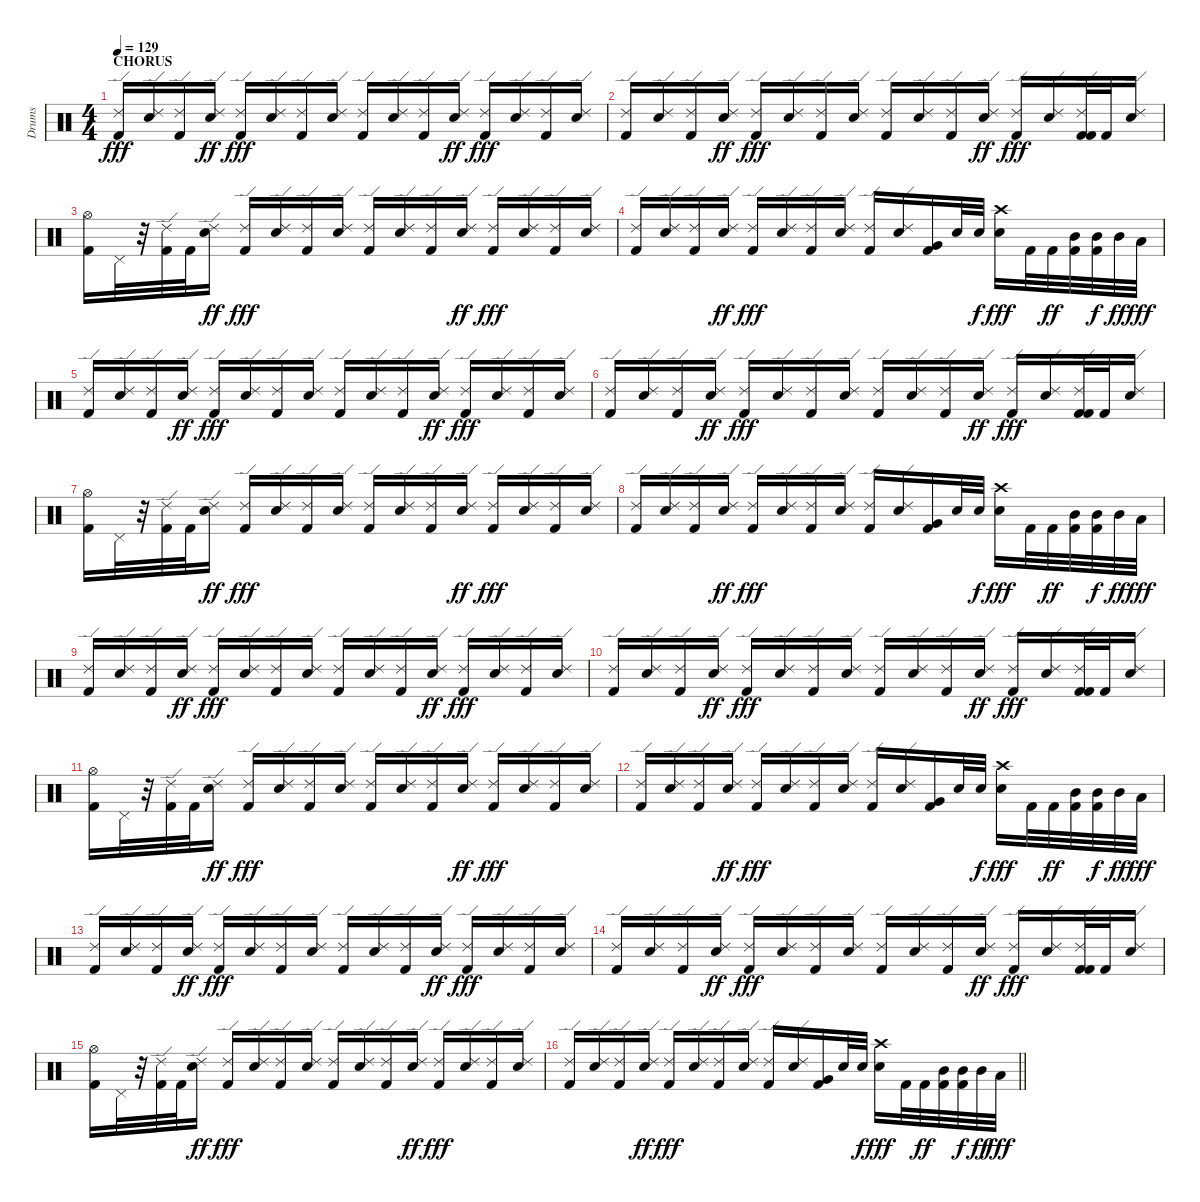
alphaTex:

\track ("Drums" "Drums") {instrument percussion}
\staff {score}
\articulation defaults
\ts (4 4)
\section ("" "CHORUS")
\tempo 129
\clef neutral
\ks c
("Kick (hit) 2" "Ride (edge) 2").16{dy fff} ("Snare (hit) 2" "Ride (edge) 2").16 ("Kick (hit) 2" "Ride (edge) 2").16 ("Snare (hit) 2" "Ride (edge) 2").16{dy ff} ("Kick (hit) 2" "Ride (edge) 2").16{dy fff} ("Snare (hit) 2" "Ride (edge) 2").16 ("Kick (hit) 2" "Ride (edge) 2").16 ("Snare (hit) 2" "Ride (edge) 2").16 ("Kick (hit) 2" "Ride (edge) 2").16 ("Snare (hit) 2" "Ride (edge) 2").16 ("Kick (hit) 2" "Ride (edge) 2").16 ("Snare (hit) 2" "Ride (edge) 2").16{dy ff} ("Kick (hit) 2" "Ride (edge) 2").16{dy fff} ("Snare (hit) 2" "Ride (edge) 2").16 ("Kick (hit) 2" "Ride (edge) 2").16 ("Snare (hit) 2" "Ride (edge) 2").16 |
("Kick (hit) 2" "Ride (edge) 2").16 ("Snare (hit) 2" "Ride (edge) 2").16 ("Kick (hit) 2" "Ride (edge) 2").16 ("Snare (hit) 2" "Ride (edge) 2").16{dy ff} ("Kick (hit) 2" "Ride (edge) 2").16{dy fff} ("Snare (hit) 2" "Ride (edge) 2").16 ("Kick (hit) 2" "Ride (edge) 2").16 ("Snare (hit) 2" "Ride (edge) 2").16 ("Kick (hit) 2" "Ride (edge) 2").16 ("Snare (hit) 2" "Ride (edge) 2").16 ("Kick (hit) 2" "Ride (edge) 2").16 ("Snare (hit) 2" "Ride (edge) 2").16{dy ff} ("Kick (hit) 2" "Ride (edge) 2").16{dy fff} ("Snare (hit) 2" "Ride (edge) 2").16 ("Kick (hit) 2" "Kick (hit) 2" "Ride (edge) 2").32 "Kick (hit) 2".32 ("Snare (hit) 2" "Ride (edge) 2").16 |
("Kick (hit) 2" "Hi-Hat (open)").16 "Pedal Hi-Hat (hit)".32 r.32 ("Kick (hit) 2" "Ride (edge) 2").32 "Kick (hit) 2".32 ("Snare (hit) 2" "Ride (edge) 2").16{dy ff} ("Kick (hit) 2" "Ride (edge) 2").16{dy fff} ("Snare (hit) 2" "Ride (edge) 2").16 ("Kick (hit) 2" "Ride (edge) 2").16 ("Snare (hit) 2" "Ride (edge) 2").16 ("Kick (hit) 2" "Ride (edge) 2").16 ("Snare (hit) 2" "Ride (edge) 2").16 ("Kick (hit) 2" "Ride (edge) 2").16 ("Snare (hit) 2" "Ride (edge) 2").16{dy ff} ("Kick (hit) 2" "Ride (edge) 2").16{dy fff} ("Snare (hit) 2" "Ride (edge) 2").16 ("Kick (hit) 2" "Ride (edge) 2").16 ("Snare (hit) 2" "Ride (edge) 2").16 |
("Kick (hit) 2" "Ride (edge) 2").16 ("Snare (hit) 2" "Ride (edge) 2").16 ("Kick (hit) 2" "Ride (edge) 2").16 ("Snare (hit) 2" "Ride (edge) 2").16{dy ff} ("Kick (hit) 2" "Ride (edge) 2").16{dy fff} ("Snare (hit) 2" "Ride (edge) 2").16 ("Kick (hit) 2" "Ride (edge) 2").16 ("Snare (hit) 2" "Ride (edge) 2").16 ("Kick (hit) 2" "Ride (edge) 2").16 ("Snare (hit) 2" "Ride (edge) 2").16 ("Kick (hit) 2" "Very Low Tom (hit)").16 "Snare (hit) 2".32 "Snare (hit) 2".32{dy f} ("Snare (hit) 2" "Crash high (hit)").16{dy fff} "Kick (hit) 2".32 "Kick (hit) 2".32{dy ff} ("Kick (hit) 2" "Mid Tom (hit)").32 ("Kick (hit) 2" "Mid Tom (hit)").32{dy f} "Mid Tom (hit)".32{dy ff} "Low Tom (hit)".32{dy fff} |
("Kick (hit) 2" "Ride (edge) 2").16 ("Snare (hit) 2" "Ride (edge) 2").16 ("Kick (hit) 2" "Ride (edge) 2").16 ("Snare (hit) 2" "Ride (edge) 2").16{dy ff} ("Kick (hit) 2" "Ride (edge) 2").16{dy fff} ("Snare (hit) 2" "Ride (edge) 2").16 ("Kick (hit) 2" "Ride (edge) 2").16 ("Snare (hit) 2" "Ride (edge) 2").16 ("Kick (hit) 2" "Ride (edge) 2").16 ("Snare (hit) 2" "Ride (edge) 2").16 ("Kick (hit) 2" "Ride (edge) 2").16 ("Snare (hit) 2" "Ride (edge) 2").16{dy ff} ("Kick (hit) 2" "Ride (edge) 2").16{dy fff} ("Snare (hit) 2" "Ride (edge) 2").16 ("Kick (hit) 2" "Ride (edge) 2").16 ("Snare (hit) 2" "Ride (edge) 2").16 |
("Kick (hit) 2" "Ride (edge) 2").16 ("Snare (hit) 2" "Ride (edge) 2").16 ("Kick (hit) 2" "Ride (edge) 2").16 ("Snare (hit) 2" "Ride (edge) 2").16{dy ff} ("Kick (hit) 2" "Ride (edge) 2").16{dy fff} ("Snare (hit) 2" "Ride (edge) 2").16 ("Kick (hit) 2" "Ride (edge) 2").16 ("Snare (hit) 2" "Ride (edge) 2").16 ("Kick (hit) 2" "Ride (edge) 2").16 ("Snare (hit) 2" "Ride (edge) 2").16 ("Kick (hit) 2" "Ride (edge) 2").16 ("Snare (hit) 2" "Ride (edge) 2").16{dy ff} ("Kick (hit) 2" "Ride (edge) 2").16{dy fff} ("Snare (hit) 2" "Ride (edge) 2").16 ("Kick (hit) 2" "Kick (hit) 2" "Ride (edge) 2").32 "Kick (hit) 2".32 ("Snare (hit) 2" "Ride (edge) 2").16 |
("Kick (hit) 2" "Hi-Hat (open)").16 "Pedal Hi-Hat (hit)".32 r.32 ("Kick (hit) 2" "Ride (edge) 2").32 "Kick (hit) 2".32 ("Snare (hit) 2" "Ride (edge) 2").16{dy ff} ("Kick (hit) 2" "Ride (edge) 2").16{dy fff} ("Snare (hit) 2" "Ride (edge) 2").16 ("Kick (hit) 2" "Ride (edge) 2").16 ("Snare (hit) 2" "Ride (edge) 2").16 ("Kick (hit) 2" "Ride (edge) 2").16 ("Snare (hit) 2" "Ride (edge) 2").16 ("Kick (hit) 2" "Ride (edge) 2").16 ("Snare (hit) 2" "Ride (edge) 2").16{dy ff} ("Kick (hit) 2" "Ride (edge) 2").16{dy fff} ("Snare (hit) 2" "Ride (edge) 2").16 ("Kick (hit) 2" "Ride (edge) 2").16 ("Snare (hit) 2" "Ride (edge) 2").16 |
("Kick (hit) 2" "Ride (edge) 2").16 ("Snare (hit) 2" "Ride (edge) 2").16 ("Kick (hit) 2" "Ride (edge) 2").16 ("Snare (hit) 2" "Ride (edge) 2").16{dy ff} ("Kick (hit) 2" "Ride (edge) 2").16{dy fff} ("Snare (hit) 2" "Ride (edge) 2").16 ("Kick (hit) 2" "Ride (edge) 2").16 ("Snare (hit) 2" "Ride (edge) 2").16 ("Kick (hit) 2" "Ride (edge) 2").16 ("Snare (hit) 2" "Ride (edge) 2").16 ("Kick (hit) 2" "Very Low Tom (hit)").16 "Snare (hit) 2".32 "Snare (hit) 2".32{dy f} ("Snare (hit) 2" "Crash high (hit)").16{dy fff} "Kick (hit) 2".32 "Kick (hit) 2".32{dy ff} ("Kick (hit) 2" "Mid Tom (hit)").32 ("Kick (hit) 2" "Mid Tom (hit)").32{dy f} "Mid Tom (hit)".32{dy ff} "Low Tom (hit)".32{dy fff} |
("Kick (hit) 2" "Ride (edge) 2").16 ("Snare (hit) 2" "Ride (edge) 2").16 ("Kick (hit) 2" "Ride (edge) 2").16 ("Snare (hit) 2" "Ride (edge) 2").16{dy ff} ("Kick (hit) 2" "Ride (edge) 2").16{dy fff} ("Snare (hit) 2" "Ride (edge) 2").16 ("Kick (hit) 2" "Ride (edge) 2").16 ("Snare (hit) 2" "Ride (edge) 2").16 ("Kick (hit) 2" "Ride (edge) 2").16 ("Snare (hit) 2" "Ride (edge) 2").16 ("Kick (hit) 2" "Ride (edge) 2").16 ("Snare (hit) 2" "Ride (edge) 2").16{dy ff} ("Kick (hit) 2" "Ride (edge) 2").16{dy fff} ("Snare (hit) 2" "Ride (edge) 2").16 ("Kick (hit) 2" "Ride (edge) 2").16 ("Snare (hit) 2" "Ride (edge) 2").16 |
("Kick (hit) 2" "Ride (edge) 2").16 ("Snare (hit) 2" "Ride (edge) 2").16 ("Kick (hit) 2" "Ride (edge) 2").16 ("Snare (hit) 2" "Ride (edge) 2").16{dy ff} ("Kick (hit) 2" "Ride (edge) 2").16{dy fff} ("Snare (hit) 2" "Ride (edge) 2").16 ("Kick (hit) 2" "Ride (edge) 2").16 ("Snare (hit) 2" "Ride (edge) 2").16 ("Kick (hit) 2" "Ride (edge) 2").16 ("Snare (hit) 2" "Ride (edge) 2").16 ("Kick (hit) 2" "Ride (edge) 2").16 ("Snare (hit) 2" "Ride (edge) 2").16{dy ff} ("Kick (hit) 2" "Ride (edge) 2").16{dy fff} ("Snare (hit) 2" "Ride (edge) 2").16 ("Kick (hit) 2" "Kick (hit) 2" "Ride (edge) 2").32 "Kick (hit) 2".32 ("Snare (hit) 2" "Ride (edge) 2").16 |
("Kick (hit) 2" "Hi-Hat (open)").16 "Pedal Hi-Hat (hit)".32 r.32 ("Kick (hit) 2" "Ride (edge) 2").32 "Kick (hit) 2".32 ("Snare (hit) 2" "Ride (edge) 2").16{dy ff} ("Kick (hit) 2" "Ride (edge) 2").16{dy fff} ("Snare (hit) 2" "Ride (edge) 2").16 ("Kick (hit) 2" "Ride (edge) 2").16 ("Snare (hit) 2" "Ride (edge) 2").16 ("Kick (hit) 2" "Ride (edge) 2").16 ("Snare (hit) 2" "Ride (edge) 2").16 ("Kick (hit) 2" "Ride (edge) 2").16 ("Snare (hit) 2" "Ride (edge) 2").16{dy ff} ("Kick (hit) 2" "Ride (edge) 2").16{dy fff} ("Snare (hit) 2" "Ride (edge) 2").16 ("Kick (hit) 2" "Ride (edge) 2").16 ("Snare (hit) 2" "Ride (edge) 2").16 |
("Kick (hit) 2" "Ride (edge) 2").16 ("Snare (hit) 2" "Ride (edge) 2").16 ("Kick (hit) 2" "Ride (edge) 2").16 ("Snare (hit) 2" "Ride (edge) 2").16{dy ff} ("Kick (hit) 2" "Ride (edge) 2").16{dy fff} ("Snare (hit) 2" "Ride (edge) 2").16 ("Kick (hit) 2" "Ride (edge) 2").16 ("Snare (hit) 2" "Ride (edge) 2").16 ("Kick (hit) 2" "Ride (edge) 2").16 ("Snare (hit) 2" "Ride (edge) 2").16 ("Kick (hit) 2" "Very Low Tom (hit)").16 "Snare (hit) 2".32 "Snare (hit) 2".32{dy f} ("Snare (hit) 2" "Crash high (hit)").16{dy fff} "Kick (hit) 2".32 "Kick (hit) 2".32{dy ff} ("Kick (hit) 2" "Mid Tom (hit)").32 ("Kick (hit) 2" "Mid Tom (hit)").32{dy f} "Mid Tom (hit)".32{dy ff} "Low Tom (hit)".32{dy fff} |
("Kick (hit) 2" "Ride (edge) 2").16 ("Snare (hit) 2" "Ride (edge) 2").16 ("Kick (hit) 2" "Ride (edge) 2").16 ("Snare (hit) 2" "Ride (edge) 2").16{dy ff} ("Kick (hit) 2" "Ride (edge) 2").16{dy fff} ("Snare (hit) 2" "Ride (edge) 2").16 ("Kick (hit) 2" "Ride (edge) 2").16 ("Snare (hit) 2" "Ride (edge) 2").16 ("Kick (hit) 2" "Ride (edge) 2").16 ("Snare (hit) 2" "Ride (edge) 2").16 ("Kick (hit) 2" "Ride (edge) 2").16 ("Snare (hit) 2" "Ride (edge) 2").16{dy ff} ("Kick (hit) 2" "Ride (edge) 2").16{dy fff} ("Snare (hit) 2" "Ride (edge) 2").16 ("Kick (hit) 2" "Ride (edge) 2").16 ("Snare (hit) 2" "Ride (edge) 2").16 |
("Kick (hit) 2" "Ride (edge) 2").16 ("Snare (hit) 2" "Ride (edge) 2").16 ("Kick (hit) 2" "Ride (edge) 2").16 ("Snare (hit) 2" "Ride (edge) 2").16{dy ff} ("Kick (hit) 2" "Ride (edge) 2").16{dy fff} ("Snare (hit) 2" "Ride (edge) 2").16 ("Kick (hit) 2" "Ride (edge) 2").16 ("Snare (hit) 2" "Ride (edge) 2").16 ("Kick (hit) 2" "Ride (edge) 2").16 ("Snare (hit) 2" "Ride (edge) 2").16 ("Kick (hit) 2" "Ride (edge) 2").16 ("Snare (hit) 2" "Ride (edge) 2").16{dy ff} ("Kick (hit) 2" "Ride (edge) 2").16{dy fff} ("Snare (hit) 2" "Ride (edge) 2").16 ("Kick (hit) 2" "Kick (hit) 2" "Ride (edge) 2").32 "Kick (hit) 2".32 ("Snare (hit) 2" "Ride (edge) 2").16 |
("Kick (hit) 2" "Hi-Hat (open)").16 "Pedal Hi-Hat (hit)".32 r.32 ("Kick (hit) 2" "Ride (edge) 2").32 "Kick (hit) 2".32 ("Snare (hit) 2" "Ride (edge) 2").16{dy ff} ("Kick (hit) 2" "Ride (edge) 2").16{dy fff} ("Snare (hit) 2" "Ride (edge) 2").16 ("Kick (hit) 2" "Ride (edge) 2").16 ("Snare (hit) 2" "Ride (edge) 2").16 ("Kick (hit) 2" "Ride (edge) 2").16 ("Snare (hit) 2" "Ride (edge) 2").16 ("Kick (hit) 2" "Ride (edge) 2").16 ("Snare (hit) 2" "Ride (edge) 2").16{dy ff} ("Kick (hit) 2" "Ride (edge) 2").16{dy fff} ("Snare (hit) 2" "Ride (edge) 2").16 ("Kick (hit) 2" "Ride (edge) 2").16 ("Snare (hit) 2" "Ride (edge) 2").16 |
\barLineRight lightlight
("Kick (hit) 2" "Ride (edge) 2").16 ("Snare (hit) 2" "Ride (edge) 2").16 ("Kick (hit) 2" "Ride (edge) 2").16 ("Snare (hit) 2" "Ride (edge) 2").16{dy ff} ("Kick (hit) 2" "Ride (edge) 2").16{dy fff} ("Snare (hit) 2" "Ride (edge) 2").16 ("Kick (hit) 2" "Ride (edge) 2").16 ("Snare (hit) 2" "Ride (edge) 2").16 ("Kick (hit) 2" "Ride (edge) 2").16 ("Snare (hit) 2" "Ride (edge) 2").16 ("Kick (hit) 2" "Very Low Tom (hit)").16 "Snare (hit) 2".32 "Snare (hit) 2".32{dy f} ("Snare (hit) 2" "Crash high (hit)").16{dy fff} "Kick (hit) 2".32 "Kick (hit) 2".32{dy ff} ("Kick (hit) 2" "Mid Tom (hit)").32 ("Kick (hit) 2" "Mid Tom (hit)").32{dy f} "Mid Tom (hit)".32{dy ff} "Low Tom (hit)".32{dy fff}
